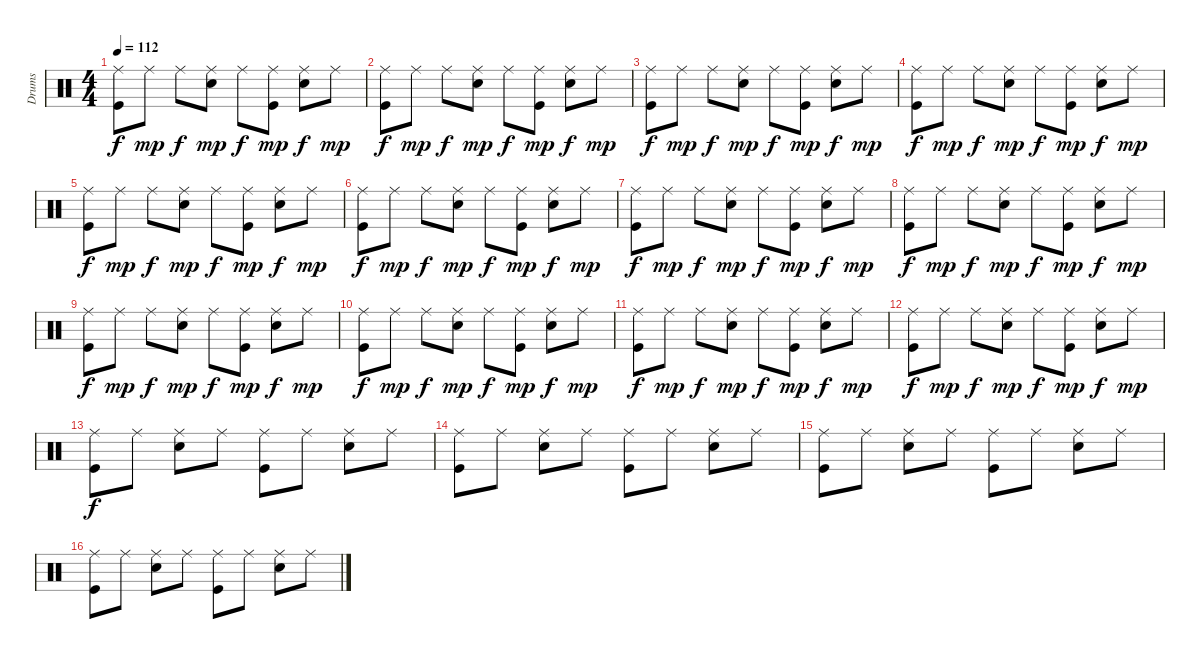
\track ("Drums" "Drums") {instrument percussion}
\staff {score}
\articulation defaults
\ts (4 4)
\tempo 112
\clef neutral
\ks c
("Ride (middle)" "Kick (hit)").8{dy f} "Ride (middle)".8{dy mp} "Ride (middle)".8{dy f} ("Ride (middle)" "Snare (hit) 2").8{dy mp} "Ride (middle)".8{dy f} ("Ride (middle)" "Kick (hit)").8{dy mp} ("Ride (middle)" "Snare (hit) 2").8{dy f} "Ride (middle)".8{dy mp} |
("Ride (middle)" "Kick (hit)").8{dy f} "Ride (middle)".8{dy mp} "Ride (middle)".8{dy f} ("Ride (middle)" "Snare (hit) 2").8{dy mp} "Ride (middle)".8{dy f} ("Ride (middle)" "Kick (hit)").8{dy mp} ("Ride (middle)" "Snare (hit) 2").8{dy f} "Ride (middle)".8{dy mp} |
("Ride (middle)" "Kick (hit)").8{dy f} "Ride (middle)".8{dy mp} "Ride (middle)".8{dy f} ("Ride (middle)" "Snare (hit) 2").8{dy mp} "Ride (middle)".8{dy f} ("Ride (middle)" "Kick (hit)").8{dy mp} ("Ride (middle)" "Snare (hit) 2").8{dy f} "Ride (middle)".8{dy mp} |
("Ride (middle)" "Kick (hit)").8{dy f} "Ride (middle)".8{dy mp} "Ride (middle)".8{dy f} ("Ride (middle)" "Snare (hit) 2").8{dy mp} "Ride (middle)".8{dy f} ("Ride (middle)" "Kick (hit)").8{dy mp} ("Ride (middle)" "Snare (hit) 2").8{dy f} "Ride (middle)".8{dy mp} |
("Ride (middle)" "Kick (hit)").8{dy f} "Ride (middle)".8{dy mp} "Ride (middle)".8{dy f} ("Ride (middle)" "Snare (hit) 2").8{dy mp} "Ride (middle)".8{dy f} ("Ride (middle)" "Kick (hit)").8{dy mp} ("Ride (middle)" "Snare (hit) 2").8{dy f} "Ride (middle)".8{dy mp} |
("Ride (middle)" "Kick (hit)").8{dy f} "Ride (middle)".8{dy mp} "Ride (middle)".8{dy f} ("Ride (middle)" "Snare (hit) 2").8{dy mp} "Ride (middle)".8{dy f} ("Ride (middle)" "Kick (hit)").8{dy mp} ("Ride (middle)" "Snare (hit) 2").8{dy f} "Ride (middle)".8{dy mp} |
("Ride (middle)" "Kick (hit)").8{dy f} "Ride (middle)".8{dy mp} "Ride (middle)".8{dy f} ("Ride (middle)" "Snare (hit) 2").8{dy mp} "Ride (middle)".8{dy f} ("Ride (middle)" "Kick (hit)").8{dy mp} ("Ride (middle)" "Snare (hit) 2").8{dy f} "Ride (middle)".8{dy mp} |
("Ride (middle)" "Kick (hit)").8{dy f} "Ride (middle)".8{dy mp} "Ride (middle)".8{dy f} ("Ride (middle)" "Snare (hit) 2").8{dy mp} "Ride (middle)".8{dy f} ("Ride (middle)" "Kick (hit)").8{dy mp} ("Ride (middle)" "Snare (hit) 2").8{dy f} "Ride (middle)".8{dy mp} |
("Ride (middle)" "Kick (hit)").8{dy f} "Ride (middle)".8{dy mp} "Ride (middle)".8{dy f} ("Ride (middle)" "Snare (hit) 2").8{dy mp} "Ride (middle)".8{dy f} ("Ride (middle)" "Kick (hit)").8{dy mp} ("Ride (middle)" "Snare (hit) 2").8{dy f} "Ride (middle)".8{dy mp} |
("Ride (middle)" "Kick (hit)").8{dy f} "Ride (middle)".8{dy mp} "Ride (middle)".8{dy f} ("Ride (middle)" "Snare (hit) 2").8{dy mp} "Ride (middle)".8{dy f} ("Ride (middle)" "Kick (hit)").8{dy mp} ("Ride (middle)" "Snare (hit) 2").8{dy f} "Ride (middle)".8{dy mp} |
("Ride (middle)" "Kick (hit)").8{dy f} "Ride (middle)".8{dy mp} "Ride (middle)".8{dy f} ("Ride (middle)" "Snare (hit) 2").8{dy mp} "Ride (middle)".8{dy f} ("Ride (middle)" "Kick (hit)").8{dy mp} ("Ride (middle)" "Snare (hit) 2").8{dy f} "Ride (middle)".8{dy mp} |
("Ride (middle)" "Kick (hit)").8{dy f} "Ride (middle)".8{dy mp} "Ride (middle)".8{dy f} ("Ride (middle)" "Snare (hit) 2").8{dy mp} "Ride (middle)".8{dy f} ("Ride (middle)" "Kick (hit)").8{dy mp} ("Ride (middle)" "Snare (hit) 2").8{dy f} "Ride (middle)".8{dy mp} |
("Ride (middle)" "Kick (hit)").8{dy f} "Ride (middle)".8 ("Ride (middle)" "Snare (hit) 2").8 "Ride (middle)".8 ("Ride (middle)" "Kick (hit)").8 "Ride (middle)".8 ("Ride (middle)" "Snare (hit) 2").8 "Ride (middle)".8 |
("Ride (middle)" "Kick (hit)").8 "Ride (middle)".8 ("Ride (middle)" "Snare (hit) 2").8 "Ride (middle)".8 ("Ride (middle)" "Kick (hit)").8 "Ride (middle)".8 ("Ride (middle)" "Snare (hit) 2").8 "Ride (middle)".8 |
("Ride (middle)" "Kick (hit)").8 "Ride (middle)".8 ("Ride (middle)" "Snare (hit) 2").8 "Ride (middle)".8 ("Ride (middle)" "Kick (hit)").8 "Ride (middle)".8 ("Ride (middle)" "Snare (hit) 2").8 "Ride (middle)".8 |
("Ride (middle)" "Kick (hit)").8 "Ride (middle)".8 ("Ride (middle)" "Snare (hit) 2").8 "Ride (middle)".8 ("Ride (middle)" "Kick (hit)").8 "Ride (middle)".8 ("Ride (middle)" "Snare (hit) 2").8 "Ride (middle)".8
